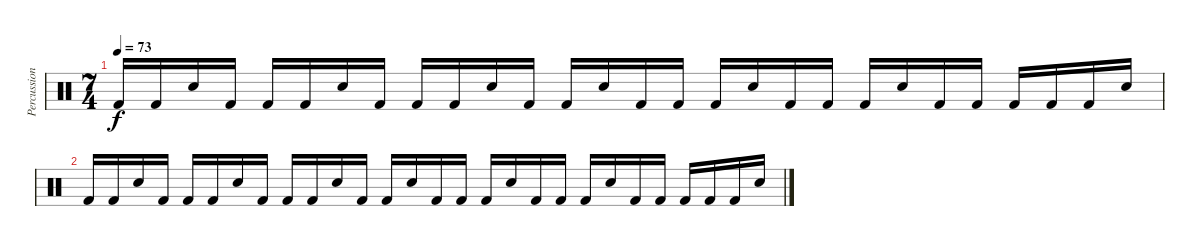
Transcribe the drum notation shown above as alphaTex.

\track ("Percussion" "Percussion") {instrument percussion}
\staff {score}
\articulation defaults
\ts (7 4)
\tempo 73
\clef neutral
\ks c "Kick (hit) 2".16{dy f volume 11} "Kick (hit) 2".16 "Snare (hit) 2".16 "Kick (hit) 2".16 "Kick (hit) 2".16 "Kick (hit) 2".16 "Snare (hit) 2".16 "Kick (hit) 2".16 "Kick (hit) 2".16 "Kick (hit) 2".16 "Snare (hit) 2".16 "Kick (hit) 2".16 "Kick (hit) 2".16 "Snare (hit) 2".16 "Kick (hit) 2".16 "Kick (hit) 2".16 "Kick (hit) 2".16 "Snare (hit) 2".16 "Kick (hit) 2".16 "Kick (hit) 2".16 "Kick (hit) 2".16 "Snare (hit) 2".16 "Kick (hit) 2".16 "Kick (hit) 2".16 "Kick (hit) 2".16 "Kick (hit) 2".16 "Kick (hit) 2".16 "Snare (hit) 2".16
|
"Kick (hit) 2".16{volume 11} "Kick (hit) 2".16 "Snare (hit) 2".16 "Kick (hit) 2".16 "Kick (hit) 2".16 "Kick (hit) 2".16 "Snare (hit) 2".16 "Kick (hit) 2".16 "Kick (hit) 2".16 "Kick (hit) 2".16 "Snare (hit) 2".16 "Kick (hit) 2".16 "Kick (hit) 2".16 "Snare (hit) 2".16 "Kick (hit) 2".16 "Kick (hit) 2".16 "Kick (hit) 2".16 "Snare (hit) 2".16 "Kick (hit) 2".16 "Kick (hit) 2".16 "Kick (hit) 2".16 "Snare (hit) 2".16 "Kick (hit) 2".16 "Kick (hit) 2".16 "Kick (hit) 2".16 "Kick (hit) 2".16 "Kick (hit) 2".16 "Snare (hit) 2".16
